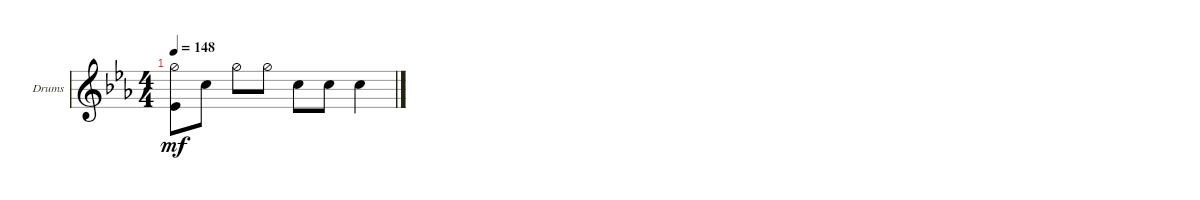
\defaultSystemsLayout 4
\bracketExtendMode groupsimilarinstruments
\firstSystemTrackNameOrientation horizontal
\otherSystemsTrackNameOrientation horizontal
\track ("Drumkit" "Drums") {instrument percussion}
\staff {score}
\articulation defaults
\ts (4 4)
\tempo 148
\clef g2
\ks cminor
("Kick (hit)" "Hi-Hat (half)").8{dy mf} "Snare (hit) 2".8 "Hi-Hat (half)".8 "Hi-Hat (half)".8 "Snare (hit) 2".8 "Snare (hit) 2".8 "Snare (hit) 2".4
